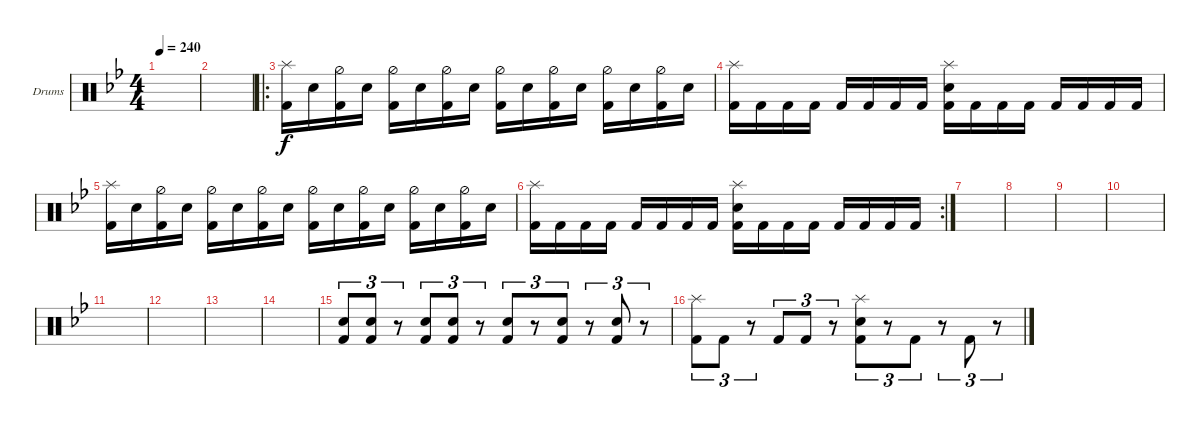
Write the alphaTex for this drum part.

\defaultSystemsLayout 4
\bracketExtendMode groupsimilarinstruments
\firstSystemTrackNameOrientation horizontal
\otherSystemsTrackNameOrientation horizontal
\track ("Drumkit" "Drums") {instrument percussion}
\staff {score}
\articulation defaults
\ts (4 4)
\tempo 240
\clef neutral
\ks bb
|
|
\ro
("Kick (hit) 2"{acc forcenatural} "Splash (hit)"{acc forcenatural}).16{beam Down} "Snare (hit) 2"{acc forcenatural}.16{beam Down} ("Hi-Hat (half)"{acc forcenatural} "Kick (hit) 2"{acc forcenatural}).16{beam Down} "Snare (hit) 2"{acc forcenatural}.16{beam Down} ("Hi-Hat (half)"{acc forcenatural} "Kick (hit) 2"{acc forcenatural}).16{beam Down} "Snare (hit) 2"{acc forcenatural}.16{beam Down} ("Hi-Hat (half)"{acc forcenatural} "Kick (hit) 2"{acc forcenatural}).16{beam Down} "Snare (hit) 2"{acc forcenatural}.16{beam Down} ("Hi-Hat (half)"{acc forcenatural} "Kick (hit) 2"{acc forcenatural}).16{beam Down} "Snare (hit) 2"{acc forcenatural}.16{beam Down} ("Hi-Hat (half)"{acc forcenatural} "Kick (hit) 2"{acc forcenatural}).16{beam Down} "Snare (hit) 2"{acc forcenatural}.16{beam Down} ("Hi-Hat (half)"{acc forcenatural} "Kick (hit) 2"{acc forcenatural}).16{beam Down} "Snare (hit) 2"{acc forcenatural}.16{beam Down} ("Hi-Hat (half)"{acc forcenatural} "Kick (hit) 2"{acc forcenatural}).16{beam Down} "Snare (hit) 2"{acc forcenatural}.16{beam Down} |
("Kick (hit) 2"{acc forcenatural} "Splash (hit)"{acc forcenatural}).16{beam Down} "Kick (hit) 2"{acc forcenatural}.16{beam Down} "Kick (hit) 2"{acc forcenatural}.16{beam Down} "Kick (hit) 2"{acc forcenatural}.16{beam Down} "Kick (hit) 2"{acc forcenatural}.16{beam Up} "Kick (hit) 2"{acc forcenatural}.16{beam Up} "Kick (hit) 2"{acc forcenatural}.16{beam Up} "Kick (hit) 2"{acc forcenatural}.16{beam Up} ("Kick (hit) 2"{acc forcenatural} "Splash (hit)"{acc forcenatural} "Snare (hit) 2"{acc forcenatural}).16{beam Down} "Kick (hit) 2"{acc forcenatural}.16{beam Down} "Kick (hit) 2"{acc forcenatural}.16{beam Down} "Kick (hit) 2"{acc forcenatural}.16{beam Down} "Kick (hit) 2"{acc forcenatural}.16{beam Up} "Kick (hit) 2"{acc forcenatural}.16{beam Up} "Kick (hit) 2"{acc forcenatural}.16{beam Up} "Kick (hit) 2"{acc forcenatural}.16{beam Up} |
("Kick (hit) 2"{acc forcenatural} "Splash (hit)"{acc forcenatural}).16{beam Down} "Snare (hit) 2"{acc forcenatural}.16{beam Down} ("Hi-Hat (half)"{acc forcenatural} "Kick (hit) 2"{acc forcenatural}).16{beam Down} "Snare (hit) 2"{acc forcenatural}.16{beam Down} ("Hi-Hat (half)"{acc forcenatural} "Kick (hit) 2"{acc forcenatural}).16{beam Down} "Snare (hit) 2"{acc forcenatural}.16{beam Down} ("Hi-Hat (half)"{acc forcenatural} "Kick (hit) 2"{acc forcenatural}).16{beam Down} "Snare (hit) 2"{acc forcenatural}.16{beam Down} ("Hi-Hat (half)"{acc forcenatural} "Kick (hit) 2"{acc forcenatural}).16{beam Down} "Snare (hit) 2"{acc forcenatural}.16{beam Down} ("Hi-Hat (half)"{acc forcenatural} "Kick (hit) 2"{acc forcenatural}).16{beam Down} "Snare (hit) 2"{acc forcenatural}.16{beam Down} ("Hi-Hat (half)"{acc forcenatural} "Kick (hit) 2"{acc forcenatural}).16{beam Down} "Snare (hit) 2"{acc forcenatural}.16{beam Down} ("Hi-Hat (half)"{acc forcenatural} "Kick (hit) 2"{acc forcenatural}).16{beam Down} "Snare (hit) 2"{acc forcenatural}.16{beam Down} |
\rc 2
("Kick (hit) 2"{acc forcenatural} "Splash (hit)"{acc forcenatural}).16{beam Down} "Kick (hit) 2"{acc forcenatural}.16{beam Down} "Kick (hit) 2"{acc forcenatural}.16{beam Down} "Kick (hit) 2"{acc forcenatural}.16{beam Down} "Kick (hit) 2"{acc forcenatural}.16{beam Up} "Kick (hit) 2"{acc forcenatural}.16{beam Up} "Kick (hit) 2"{acc forcenatural}.16{beam Up} "Kick (hit) 2"{acc forcenatural}.16{beam Up} ("Kick (hit) 2"{acc forcenatural} "Splash (hit)"{acc forcenatural} "Snare (hit) 2"{acc forcenatural}).16{beam Down} "Kick (hit) 2"{acc forcenatural}.16{beam Down} "Kick (hit) 2"{acc forcenatural}.16{beam Down} "Kick (hit) 2"{acc forcenatural}.16{beam Down} "Kick (hit) 2"{acc forcenatural}.16{beam Up} "Kick (hit) 2"{acc forcenatural}.16{beam Up} "Kick (hit) 2"{acc forcenatural}.16{beam Up} "Kick (hit) 2"{acc forcenatural}.16{beam Up} |
|
|
|
|
|
|
|
|
("Snare (hit) 2"{acc forcenatural} "Kick (hit) 2"{acc forcenatural}).8{tu (3 2) beam Up} ("Snare (hit) 2"{acc forcenatural} "Kick (hit) 2"{acc forcenatural}).8{tu (3 2) beam Up} r.8{tu (3 2) beam Up} ("Snare (hit) 2"{acc forcenatural} "Kick (hit) 2"{acc forcenatural}).8{tu (3 2) beam Up} ("Snare (hit) 2"{acc forcenatural} "Kick (hit) 2"{acc forcenatural}).8{tu (3 2) beam Up} r.8{tu (3 2) beam Up} ("Snare (hit) 2"{acc forcenatural} "Kick (hit) 2"{acc forcenatural}).8{tu (3 2) beam Up} r.8{tu (3 2) beam Up} ("Snare (hit) 2"{acc forcenatural} "Kick (hit) 2"{acc forcenatural}).8{tu (3 2) beam Up} r.8{tu (3 2) beam Up} ("Snare (hit) 2"{acc forcenatural} "Kick (hit) 2"{acc forcenatural}).8{tu (3 2) beam Up} r.8{tu (3 2) beam Up} |
("Kick (hit) 2"{acc forcenatural} "Splash (hit)"{acc forcenatural}).8{tu (3 2) beam Down} "Kick (hit) 2"{acc forcenatural}.8{tu (3 2) beam Down} r.8{tu (3 2) beam Down} "Kick (hit) 2"{acc forcenatural}.8{tu (3 2) beam Up} "Kick (hit) 2"{acc forcenatural}.8{tu (3 2) beam Up} r.8{tu (3 2) beam Up} ("Kick (hit) 2"{acc forcenatural} "Splash (hit)"{acc forcenatural} "Snare (hit) 2"{acc forcenatural}).8{tu (3 2) beam Down} r.8{tu (3 2) beam Down} "Kick (hit) 2"{acc forcenatural}.8{tu (3 2) beam Down} r.8{tu (3 2) beam Down} "Kick (hit) 2"{acc forcenatural}.8{tu (3 2) beam Up} r.8{tu (3 2) beam Up}
